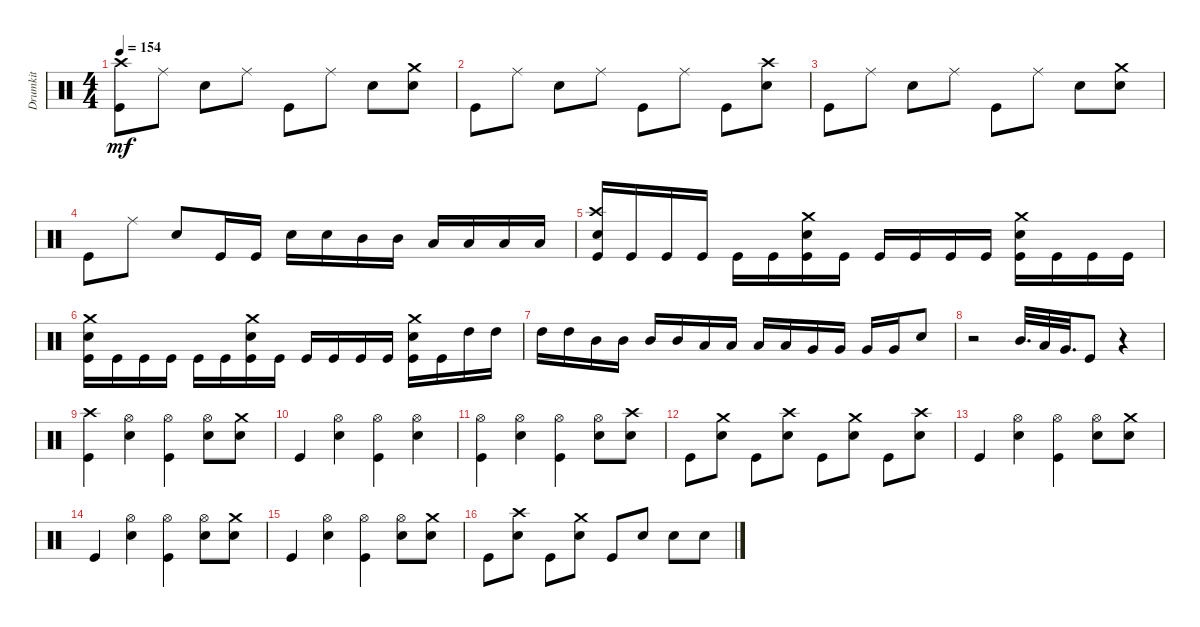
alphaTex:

\track ("Drumkit" "Drumkit") {instrument percussion}
\staff {score}
\articulation defaults
\ts (4 4)
\tempo 154
\clef neutral
\ks c
("Kick (hit)" "Crash high (hit)").8{dy mf} "Ride (middle)".8 "Snare (hit) 2".8 "Ride (middle)".8 "Kick (hit)".8 "Ride (middle)".8 "Snare (hit) 2".8 ("Snare (hit) 2" "Crash medium (hit)").8 |
"Kick (hit)".8 "Ride (middle)".8 "Snare (hit) 2".8 "Ride (middle)".8 "Kick (hit)".8 "Ride (middle)".8 "Kick (hit)".8 ("Snare (hit) 2" "Crash high (hit)").8 |
"Kick (hit)".8 "Ride (middle)".8 "Snare (hit) 2".8 "Ride (middle)".8 "Kick (hit)".8 "Ride (middle)".8 "Snare (hit) 2".8 ("Snare (hit) 2" "Crash medium (hit)").8 |
"Kick (hit)".8 "Ride (middle)".8 "Snare (hit) 2".8 "Kick (hit)".16 "Kick (hit)".16 "Snare (hit) 2".16 "Snare (hit) 2".16 "Mid Tom (hit)".16 "Mid Tom (hit)".16 "Low Tom (hit)".16 "Low Tom (hit)".16 "Low Tom (hit)".16 "Low Tom (hit)".16 |
("Kick (hit)" "Snare (hit) 2" "Crash high (hit)").16 "Kick (hit)".16 "Kick (hit)".16 "Kick (hit)".16 "Kick (hit)".16 "Kick (hit)".16 ("Snare (hit) 2" "Kick (hit)" "Crash medium (hit)").16 "Kick (hit)".16 "Kick (hit)".16 "Kick (hit)".16 "Kick (hit)".16 "Kick (hit)".16 ("Kick (hit)" "Snare (hit) 2" "Crash medium (hit)").16 "Kick (hit)".16 "Kick (hit)".16 "Kick (hit)".16 |
("Kick (hit)" "Snare (hit) 2" "Crash medium (hit)").16 "Kick (hit)".16 "Kick (hit)".16 "Kick (hit)".16 "Kick (hit)".16 "Kick (hit)".16 ("Kick (hit)" "Snare (hit) 2" "Crash medium (hit)").16 "Kick (hit)".16 "Kick (hit)".16 "Kick (hit)".16 "Kick (hit)".16 "Kick (hit)".16 ("Kick (hit)" "Snare (hit) 2" "Crash medium (hit)").16 "Kick (hit)".16 "High Tom (hit)".16 "High Tom (hit)".16 |
"High Tom (hit)".16 "High Tom (hit)".16 "Mid Tom (hit)".16 "Mid Tom (hit)".16 "Mid Tom (hit)".16 "Mid Tom (hit)".16 "Low Tom (hit)".16 "Low Tom (hit)".16 "Low Tom (hit)".16 "Low Tom (hit)".16 "Very Low Tom (hit)".16 "Very Low Tom (hit)".16 "Very Low Tom (hit)".16 "Very Low Tom (hit)".16 "Snare (hit) 2".8 |
r.2 "Mid Tom (hit)".32{d} "Low Tom (hit)".32 "Very Low Tom (hit)".32{d} "Kick (hit)".8 r.4 |
("Kick (hit)" "Crash high (hit)").4 ("Snare (hit) 2" "Hi-Hat (open)").4 ("Kick (hit)" "Hi-Hat (open)").4 ("Snare (hit) 2" "Hi-Hat (open)").8 ("Snare (hit) 2" "Crash medium (hit)").8 |
"Kick (hit)".4 ("Snare (hit) 2" "Hi-Hat (open)").4 ("Kick (hit)" "Hi-Hat (open)").4 ("Snare (hit) 2" "Hi-Hat (open)").4 |
("Kick (hit)" "Hi-Hat (open)").4 ("Snare (hit) 2" "Hi-Hat (open)").4 ("Kick (hit)" "Hi-Hat (open)").4 ("Snare (hit) 2" "Hi-Hat (open)").8 ("Snare (hit) 2" "Crash high (hit)").8 |
"Kick (hit)".8 ("Snare (hit) 2" "Crash medium (hit)").8 "Kick (hit)".8 ("Snare (hit) 2" "Crash high (hit)").8 "Kick (hit)".8 ("Snare (hit) 2" "Crash medium (hit)").8 "Kick (hit)".8 ("Snare (hit) 2" "Crash high (hit)").8 |
"Kick (hit)".4 ("Snare (hit) 2" "Hi-Hat (open)").4 ("Kick (hit)" "Hi-Hat (open)").4 ("Snare (hit) 2" "Hi-Hat (open)").8 ("Snare (hit) 2" "Crash medium (hit)").8 |
"Kick (hit)".4 ("Snare (hit) 2" "Hi-Hat (open)").4 ("Kick (hit)" "Hi-Hat (open)").4 ("Snare (hit) 2" "Hi-Hat (open)").8 ("Snare (hit) 2" "Crash medium (hit)").8 |
"Kick (hit)".4 ("Snare (hit) 2" "Hi-Hat (open)").4 ("Kick (hit)" "Hi-Hat (open)").4 ("Snare (hit) 2" "Hi-Hat (open)").8 ("Snare (hit) 2" "Crash medium (hit)").8 |
"Kick (hit)".8 ("Snare (hit) 2" "Crash high (hit)").8 "Kick (hit)".8 ("Snare (hit) 2" "Crash medium (hit)").8 "Kick (hit)".8 "Snare (hit) 2".8 "Snare (hit) 2".8 "Snare (hit) 2".8
